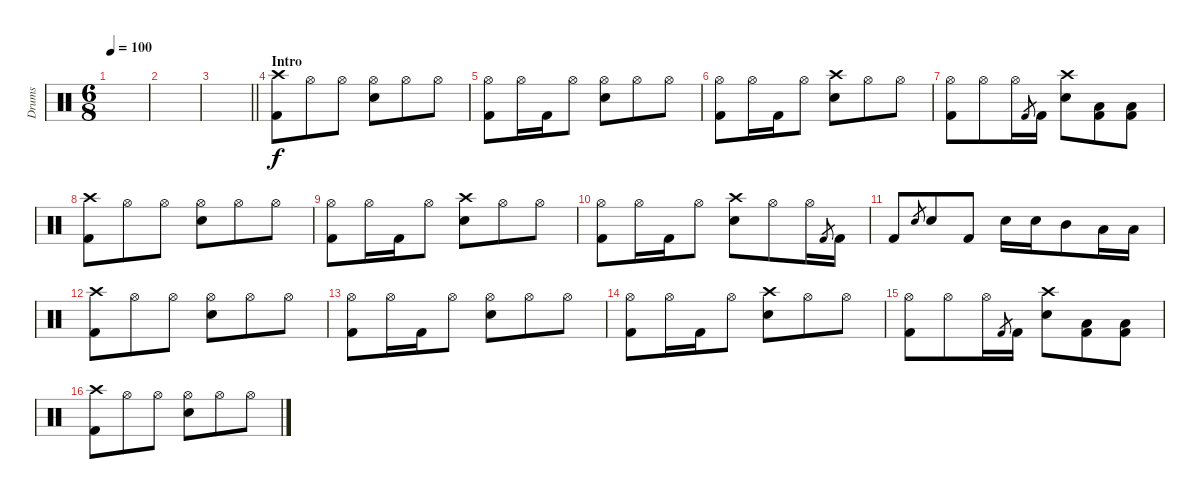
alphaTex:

\track ("Drums" "Drums") {instrument percussion}
\staff {score}
\articulation defaults
\ts (6 8)
\tempo 100
\clef neutral
\ks c
|
|
\barLineRight lightlight
|
\section ("" "Intro")
("Crash high (hit)" "Kick (hit) 2").8 "Hi-Hat (open)".8 "Hi-Hat (open)".8 ("Hi-Hat (open)" "Snare (hit) 2").8 "Hi-Hat (open)".8 "Hi-Hat (open)".8 |
("Hi-Hat (open)" "Kick (hit) 2").8 "Hi-Hat (open)".16 "Kick (hit) 2".16 "Hi-Hat (open)".8 ("Hi-Hat (open)" "Snare (hit) 2").8 "Hi-Hat (open)".8 "Hi-Hat (open)".8 |
("Hi-Hat (open)" "Kick (hit) 2").8 "Hi-Hat (open)".16 "Kick (hit) 2".16 "Hi-Hat (open)".8 ("Crash high (hit)" "Snare (hit) 2").8 "Hi-Hat (open)".8 "Hi-Hat (open)".8 |
("Hi-Hat (open)" "Kick (hit) 2").8 "Hi-Hat (open)".8 "Hi-Hat (open)".16 "Kick (hit) 2".8{gr} "Kick (hit) 2".16 ("Crash high (hit)" "Snare (hit) 2").8 ("Low Floor Tom (hit)" "Kick (hit) 2").8 ("Low Floor Tom (hit)" "Kick (hit) 2").8 |
("Crash high (hit)" "Kick (hit) 2").8 "Hi-Hat (open)".8 "Hi-Hat (open)".8 ("Hi-Hat (open)" "Snare (hit) 2").8 "Hi-Hat (open)".8 "Hi-Hat (open)".8 |
("Hi-Hat (open)" "Kick (hit) 2").8 "Hi-Hat (open)".16 "Kick (hit) 2".16 "Hi-Hat (open)".8 ("Crash high (hit)" "Snare (hit) 2").8 "Hi-Hat (open)".8 "Hi-Hat (open)".8 |
("Hi-Hat (open)" "Kick (hit) 2").8 "Hi-Hat (open)".16 "Kick (hit) 2".16 "Hi-Hat (open)".8 ("Crash high (hit)" "Snare (hit) 2").8 "Hi-Hat (open)".8 "Hi-Hat (open)".16 "Kick (hit) 2".8{gr} "Kick (hit) 2".16 |
"Kick (hit) 2".8 "Electric Snare (hit)".8{gr} "Electric Snare (hit)".8 "Kick (hit) 2".8 "Electric Snare (hit)".16 "Electric Snare (hit)".16 "Mid Tom (hit)".8 "Low Tom (hit)".16 "Low Tom (hit)".16 |
("Crash high (hit)" "Kick (hit) 2").8 "Hi-Hat (open)".8 "Hi-Hat (open)".8 ("Hi-Hat (open)" "Snare (hit) 2").8 "Hi-Hat (open)".8 "Hi-Hat (open)".8 |
("Hi-Hat (open)" "Kick (hit) 2").8 "Hi-Hat (open)".16 "Kick (hit) 2".16 "Hi-Hat (open)".8 ("Hi-Hat (open)" "Snare (hit) 2").8 "Hi-Hat (open)".8 "Hi-Hat (open)".8 |
("Hi-Hat (open)" "Kick (hit) 2").8 "Hi-Hat (open)".16 "Kick (hit) 2".16 "Hi-Hat (open)".8 ("Crash high (hit)" "Snare (hit) 2").8 "Hi-Hat (open)".8 "Hi-Hat (open)".8 |
("Hi-Hat (open)" "Kick (hit) 2").8 "Hi-Hat (open)".8 "Hi-Hat (open)".16 "Kick (hit) 2".8{gr} "Kick (hit) 2".16 ("Crash high (hit)" "Snare (hit) 2").8 ("Low Floor Tom (hit)" "Kick (hit) 2").8 ("Low Floor Tom (hit)" "Kick (hit) 2").8 |
("Crash high (hit)" "Kick (hit) 2").8 "Hi-Hat (open)".8 "Hi-Hat (open)".8 ("Hi-Hat (open)" "Snare (hit) 2").8 "Hi-Hat (open)".8 "Hi-Hat (open)".8
